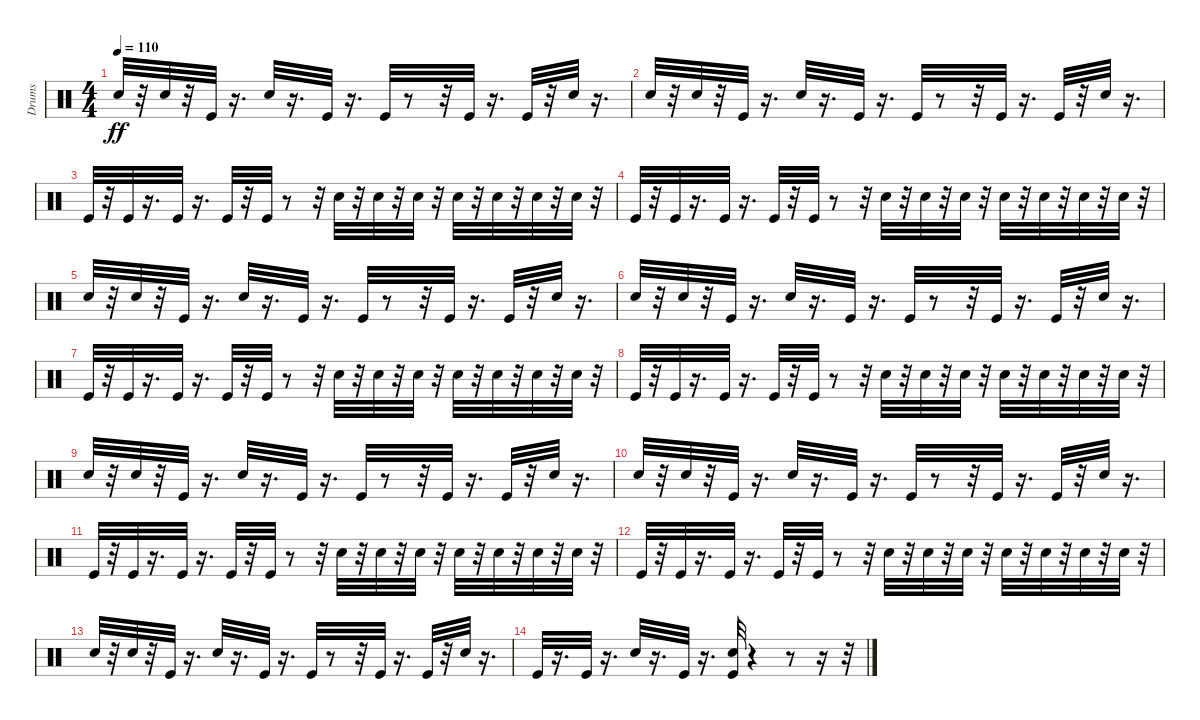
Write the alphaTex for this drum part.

\track ("Drums" "Drums") {instrument percussion}
\staff {score}
\articulation defaults
\ts (4 4)
\tempo 110
\clef neutral
\ks c "Snare (hit) 2".32{dy ff}
r.32 "Snare (hit) 2".32 r.32 "Kick (hit)".32 r.16{d} "Snare (hit) 2".32 r.16{d} "Kick (hit)".32 r.16{d} "Kick (hit)".32 r.8 r.32 "Kick (hit)".32 r.16{d} "Kick (hit)".32 r.32 "Snare (hit) 2".32 r.16{d} |
"Snare (hit) 2".32 r.32 "Snare (hit) 2".32 r.32 "Kick (hit)".32 r.16{d} "Snare (hit) 2".32 r.16{d} "Kick (hit)".32 r.16{d} "Kick (hit)".32 r.8 r.32 "Kick (hit)".32 r.16{d} "Kick (hit)".32 r.32 "Snare (hit) 2".32 r.16{d} |
"Kick (hit)".32 r.32 "Kick (hit)".32 r.16{d} "Kick (hit)".32 r.16{d} "Kick (hit)".32 r.32 "Kick (hit)".32 r.8 r.32 "Snare (hit) 2".32 r.32 "Snare (hit) 2".32 r.32 "Snare (hit) 2".32 r.32 "Snare (hit) 2".32 r.32 "Snare (hit) 2".32 r.32 "Snare (hit) 2".32 r.32 "Snare (hit) 2".32 r.32 |
"Kick (hit)".32 r.32 "Kick (hit)".32 r.16{d} "Kick (hit)".32 r.16{d} "Kick (hit)".32 r.32 "Kick (hit)".32 r.8 r.32 "Snare (hit) 2".32 r.32 "Snare (hit) 2".32 r.32 "Snare (hit) 2".32 r.32 "Snare (hit) 2".32 r.32 "Snare (hit) 2".32 r.32 "Snare (hit) 2".32 r.32 "Snare (hit) 2".32 r.32 |
"Snare (hit) 2".32 r.32 "Snare (hit) 2".32 r.32 "Kick (hit)".32 r.16{d} "Snare (hit) 2".32 r.16{d} "Kick (hit)".32 r.16{d} "Kick (hit)".32 r.8 r.32 "Kick (hit)".32 r.16{d} "Kick (hit)".32 r.32 "Snare (hit) 2".32 r.16{d} |
"Snare (hit) 2".32 r.32 "Snare (hit) 2".32 r.32 "Kick (hit)".32 r.16{d} "Snare (hit) 2".32 r.16{d} "Kick (hit)".32 r.16{d} "Kick (hit)".32 r.8 r.32 "Kick (hit)".32 r.16{d} "Kick (hit)".32 r.32 "Snare (hit) 2".32 r.16{d} |
"Kick (hit)".32 r.32 "Kick (hit)".32 r.16{d} "Kick (hit)".32 r.16{d} "Kick (hit)".32 r.32 "Kick (hit)".32 r.8 r.32 "Snare (hit) 2".32 r.32 "Snare (hit) 2".32 r.32 "Snare (hit) 2".32 r.32 "Snare (hit) 2".32 r.32 "Snare (hit) 2".32 r.32 "Snare (hit) 2".32 r.32 "Snare (hit) 2".32 r.32 |
"Kick (hit)".32 r.32 "Kick (hit)".32 r.16{d} "Kick (hit)".32 r.16{d} "Kick (hit)".32 r.32 "Kick (hit)".32 r.8 r.32 "Snare (hit) 2".32 r.32 "Snare (hit) 2".32 r.32 "Snare (hit) 2".32 r.32 "Snare (hit) 2".32 r.32 "Snare (hit) 2".32 r.32 "Snare (hit) 2".32 r.32 "Snare (hit) 2".32 r.32 |
"Snare (hit) 2".32 r.32 "Snare (hit) 2".32 r.32 "Kick (hit)".32 r.16{d} "Snare (hit) 2".32 r.16{d} "Kick (hit)".32 r.16{d} "Kick (hit)".32 r.8 r.32 "Kick (hit)".32 r.16{d} "Kick (hit)".32 r.32 "Snare (hit) 2".32 r.16{d} |
"Snare (hit) 2".32 r.32 "Snare (hit) 2".32 r.32 "Kick (hit)".32 r.16{d} "Snare (hit) 2".32 r.16{d} "Kick (hit)".32 r.16{d} "Kick (hit)".32 r.8 r.32 "Kick (hit)".32 r.16{d} "Kick (hit)".32 r.32 "Snare (hit) 2".32 r.16{d} |
"Kick (hit)".32 r.32 "Kick (hit)".32 r.16{d} "Kick (hit)".32 r.16{d} "Kick (hit)".32 r.32 "Kick (hit)".32 r.8 r.32 "Snare (hit) 2".32 r.32 "Snare (hit) 2".32 r.32 "Snare (hit) 2".32 r.32 "Snare (hit) 2".32 r.32 "Snare (hit) 2".32 r.32 "Snare (hit) 2".32 r.32 "Snare (hit) 2".32 r.32 |
"Kick (hit)".32 r.32 "Kick (hit)".32 r.16{d} "Kick (hit)".32 r.16{d} "Kick (hit)".32 r.32 "Kick (hit)".32 r.8 r.32 "Snare (hit) 2".32 r.32 "Snare (hit) 2".32 r.32 "Snare (hit) 2".32 r.32 "Snare (hit) 2".32 r.32 "Snare (hit) 2".32 r.32 "Snare (hit) 2".32 r.32 "Snare (hit) 2".32 r.32 |
"Snare (hit) 2".32 r.32 "Snare (hit) 2".32 r.32 "Kick (hit)".32 r.16{d} "Snare (hit) 2".32 r.16{d} "Kick (hit)".32 r.16{d} "Kick (hit)".32 r.8 r.32 "Kick (hit)".32 r.16{d} "Kick (hit)".32 r.32 "Snare (hit) 2".32 r.16{d} |
"Kick (hit)".32 r.16{d} "Kick (hit)".32 r.16{d} "Snare (hit) 2".32 r.16{d} "Kick (hit)".32 r.16{d} ("Snare (hit) 2" "Kick (hit)").32 r.4 r.8 r.16 r.32
